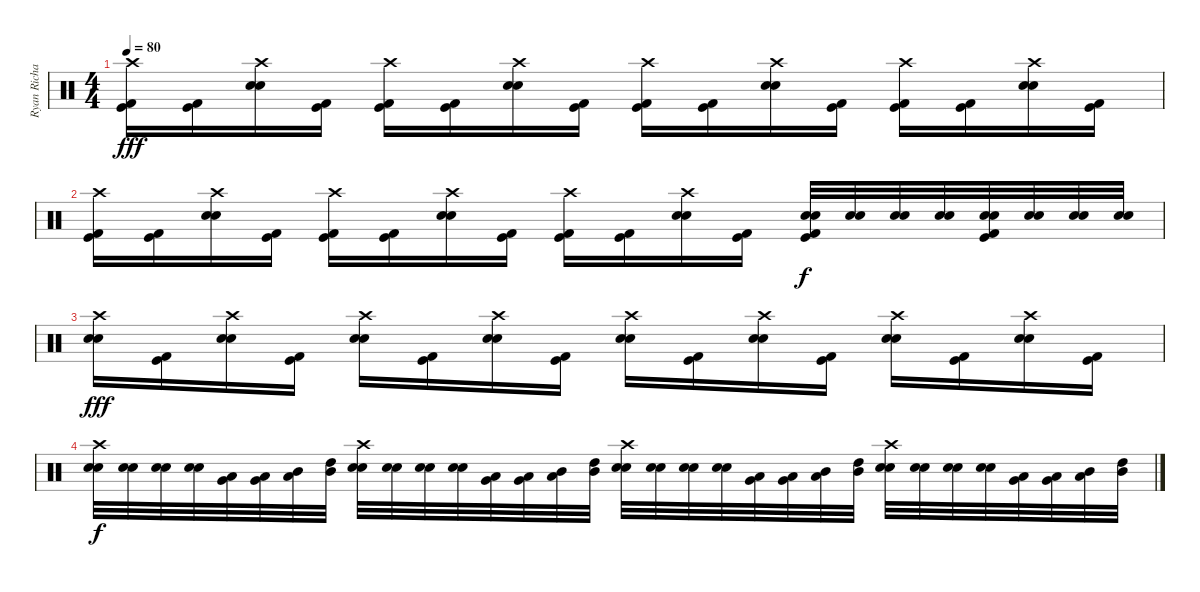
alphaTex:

\track ("Ryan Richards" "Ryan Richa") {instrument percussion}
\staff {score}
\articulation defaults
\ts (4 4)
\tempo 80
\clef neutral
\ks c
("Kick (hit)" "Crash high (hit)" "Kick (hit) 2").16{dy fff} ("Kick (hit)" "Kick (hit) 2").16 ("Crash high (hit)" "Snare (hit) 2" "Electric Snare (hit)").16 ("Kick (hit)" "Kick (hit) 2").16 ("Kick (hit)" "Crash high (hit)" "Kick (hit) 2").16 ("Kick (hit)" "Kick (hit) 2").16 ("Crash high (hit)" "Snare (hit) 2" "Electric Snare (hit)").16 ("Kick (hit)" "Kick (hit) 2").16 ("Kick (hit)" "Crash high (hit)" "Kick (hit) 2").16 ("Kick (hit)" "Kick (hit) 2").16 ("Crash high (hit)" "Snare (hit) 2" "Electric Snare (hit)").16 ("Kick (hit)" "Kick (hit) 2").16 ("Kick (hit)" "Crash high (hit)" "Kick (hit) 2").16 ("Kick (hit)" "Kick (hit) 2").16 ("Crash high (hit)" "Snare (hit) 2" "Electric Snare (hit)").16 ("Kick (hit)" "Kick (hit) 2").16 |
("Kick (hit)" "Crash high (hit)" "Kick (hit) 2").16 ("Kick (hit)" "Kick (hit) 2").16 ("Crash high (hit)" "Snare (hit) 2" "Electric Snare (hit)").16 ("Kick (hit)" "Kick (hit) 2").16 ("Kick (hit)" "Crash high (hit)" "Kick (hit) 2").16 ("Kick (hit)" "Kick (hit) 2").16 ("Crash high (hit)" "Snare (hit) 2" "Electric Snare (hit)").16 ("Kick (hit)" "Kick (hit) 2").16 ("Kick (hit)" "Crash high (hit)" "Kick (hit) 2").16 ("Kick (hit)" "Kick (hit) 2").16 ("Crash high (hit)" "Snare (hit) 2" "Electric Snare (hit)").16 ("Kick (hit)" "Kick (hit) 2").16 ("Kick (hit)" "Snare (hit) 2" "Electric Snare (hit)" "Kick (hit) 2").32{dy f} ("Snare (hit) 2" "Electric Snare (hit)").32 ("Snare (hit) 2" "Electric Snare (hit)").32 ("Snare (hit) 2" "Electric Snare (hit)").32 ("Kick (hit)" "Snare (hit) 2" "Electric Snare (hit)" "Kick (hit) 2").32 ("Snare (hit) 2" "Electric Snare (hit)").32 ("Snare (hit) 2" "Electric Snare (hit)").32 ("Snare (hit) 2" "Electric Snare (hit)").32 |
("Crash high (hit)" "Snare (hit) 2" "Electric Snare (hit)").16{dy fff} ("Kick (hit)" "Kick (hit) 2").16 ("Crash high (hit)" "Snare (hit) 2" "Electric Snare (hit)").16 ("Kick (hit)" "Kick (hit) 2").16 ("Crash high (hit)" "Snare (hit) 2" "Electric Snare (hit)").16 ("Kick (hit)" "Kick (hit) 2").16 ("Crash high (hit)" "Snare (hit) 2" "Electric Snare (hit)").16 ("Kick (hit)" "Kick (hit) 2").16 ("Crash high (hit)" "Snare (hit) 2" "Electric Snare (hit)").16 ("Kick (hit)" "Kick (hit) 2").16 ("Crash high (hit)" "Snare (hit) 2" "Electric Snare (hit)").16 ("Kick (hit)" "Kick (hit) 2").16 ("Crash high (hit)" "Snare (hit) 2" "Electric Snare (hit)").16 ("Kick (hit)" "Kick (hit) 2").16 ("Crash high (hit)" "Snare (hit) 2" "Electric Snare (hit)").16 ("Kick (hit)" "Kick (hit) 2").16 |
("Snare (hit) 2" "Crash high (hit)" "Electric Snare (hit)").32{dy f} ("Snare (hit) 2" "Electric Snare (hit)").32 ("Snare (hit) 2" "Electric Snare (hit)").32 ("Snare (hit) 2" "Electric Snare (hit)").32 ("Very Low Tom (hit)" "Low Floor Tom (hit)").32 ("Low Tom (hit)" "Very Low Tom (hit)").32 ("Mid Tom (hit)" "Low Tom (hit)").32 ("High Tom (hit)" "Mid Tom (hit)").32 ("Snare (hit) 2" "Crash high (hit)" "Electric Snare (hit)").32 ("Snare (hit) 2" "Electric Snare (hit)").32 ("Snare (hit) 2" "Electric Snare (hit)").32 ("Snare (hit) 2" "Electric Snare (hit)").32 ("Very Low Tom (hit)" "Low Floor Tom (hit)").32 ("Low Tom (hit)" "Very Low Tom (hit)").32 ("Mid Tom (hit)" "Low Tom (hit)").32 ("High Tom (hit)" "Mid Tom (hit)").32 ("Snare (hit) 2" "Crash high (hit)" "Electric Snare (hit)").32 ("Snare (hit) 2" "Electric Snare (hit)").32 ("Snare (hit) 2" "Electric Snare (hit)").32 ("Snare (hit) 2" "Electric Snare (hit)").32 ("Very Low Tom (hit)" "Low Floor Tom (hit)").32 ("Low Tom (hit)" "Very Low Tom (hit)").32 ("Mid Tom (hit)" "Low Tom (hit)").32 ("High Tom (hit)" "Mid Tom (hit)").32 ("Snare (hit) 2" "Crash high (hit)" "Electric Snare (hit)").32 ("Snare (hit) 2" "Electric Snare (hit)").32 ("Snare (hit) 2" "Electric Snare (hit)").32 ("Snare (hit) 2" "Electric Snare (hit)").32 ("Very Low Tom (hit)" "Low Floor Tom (hit)").32 ("Low Tom (hit)" "Very Low Tom (hit)").32 ("Mid Tom (hit)" "Low Tom (hit)").32 ("High Tom (hit)" "Mid Tom (hit)").32
